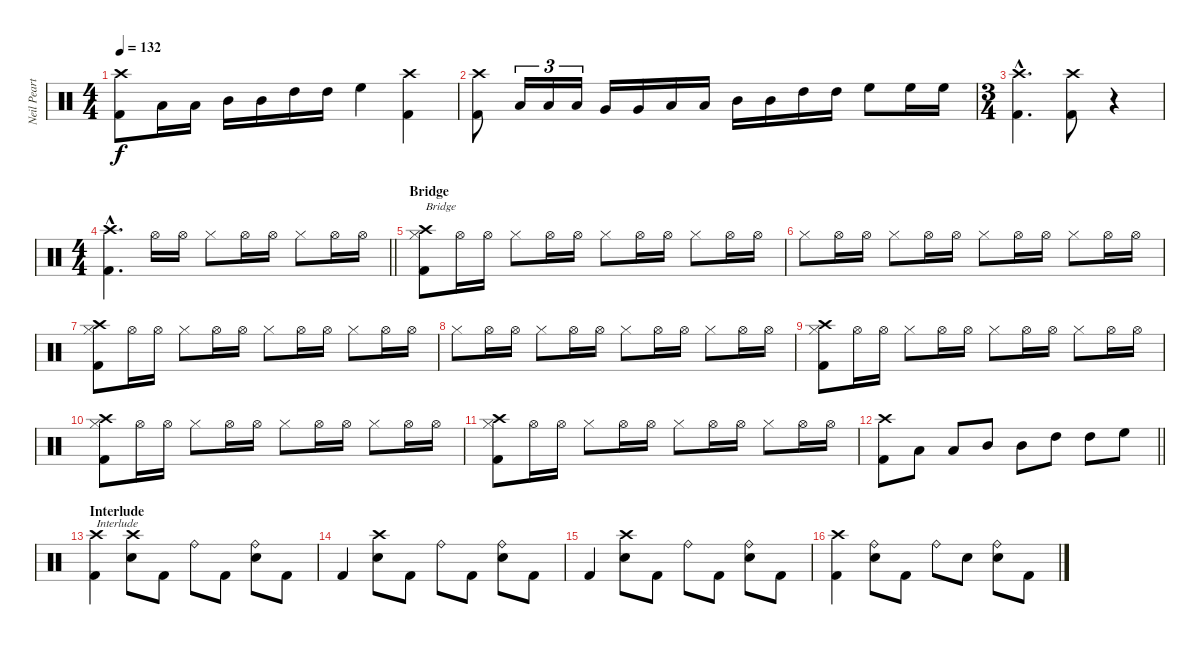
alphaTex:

\track ("Neil Peart" "Neil Peart") {instrument percussion}
\staff {score}
\articulation defaults
\ts (4 4)
\tempo 132
\clef neutral
\ks c
("Crash high (hit)" "Kick (hit) 2").8{dy f} "Low Tom (hit)".16 "Low Tom (hit)".16 "Mid Tom (hit)".16 "Mid Tom (hit)".16 "High Tom (hit)".16 "High Tom (hit)".16 "High Floor Tom (hit)".4 ("Crash high (hit)" "Kick (hit) 2").4 |
("Crash high (hit)" "Kick (hit) 2").8 "Low Floor Tom (hit)".16{tu (3 2)} "Low Floor Tom (hit)".16{tu (3 2)} "Low Floor Tom (hit)".16{tu (3 2)} "Very Low Tom (hit)".16 "Very Low Tom (hit)".16 "Low Tom (hit)".16 "Low Tom (hit)".16 "Mid Tom (hit)".16 "Mid Tom (hit)".16 "High Tom (hit)".16 "High Tom (hit)".16 "High Floor Tom (hit)".8 "High Floor Tom (hit)".16 "High Floor Tom (hit)".16 |
\ts (3 4)
("Crash high (hit)"{hac} "Kick (hit) 2"{hac}).4{d} ("Crash high (hit)" "Kick (hit) 2").8 r.4 |
\ts (4 4)
\barLineRight lightlight
("Crash high (hit)"{hac} "Kick (hit) 2"{hac}).4{d} "Hi-Hat (open)".16 "Hi-Hat (open)".16 "Hi-Hat (closed)".8 "Hi-Hat (open)".16 "Hi-Hat (open)".16 "Hi-Hat (closed)".8 "Hi-Hat (open)".16 "Hi-Hat (open)".16 |
\section ("" "Bridge")
("Crash high (hit)" "Hi-Hat (closed)" "Kick (hit) 2").8{txt "Bridge"} "Hi-Hat (open)".16 "Hi-Hat (open)".16 "Hi-Hat (closed)".8 "Hi-Hat (open)".16 "Hi-Hat (open)".16 "Hi-Hat (closed)".8 "Hi-Hat (open)".16 "Hi-Hat (open)".16 "Hi-Hat (closed)".8 "Hi-Hat (open)".16 "Hi-Hat (open)".16 |
"Hi-Hat (closed)".8 "Hi-Hat (open)".16 "Hi-Hat (open)".16 "Hi-Hat (closed)".8 "Hi-Hat (open)".16 "Hi-Hat (open)".16 "Hi-Hat (closed)".8 "Hi-Hat (open)".16 "Hi-Hat (open)".16 "Hi-Hat (closed)".8 "Hi-Hat (open)".16 "Hi-Hat (open)".16 |
("Crash high (hit)" "Hi-Hat (closed)" "Kick (hit) 2").8 "Hi-Hat (open)".16 "Hi-Hat (open)".16 "Hi-Hat (closed)".8 "Hi-Hat (open)".16 "Hi-Hat (open)".16 "Hi-Hat (closed)".8 "Hi-Hat (open)".16 "Hi-Hat (open)".16 "Hi-Hat (closed)".8 "Hi-Hat (open)".16 "Hi-Hat (open)".16 |
"Hi-Hat (closed)".8 "Hi-Hat (open)".16 "Hi-Hat (open)".16 "Hi-Hat (closed)".8 "Hi-Hat (open)".16 "Hi-Hat (open)".16 "Hi-Hat (closed)".8 "Hi-Hat (open)".16 "Hi-Hat (open)".16 "Hi-Hat (closed)".8 "Hi-Hat (open)".16 "Hi-Hat (open)".16 |
("Crash high (hit)" "Hi-Hat (closed)" "Kick (hit) 2").8 "Hi-Hat (open)".16 "Hi-Hat (open)".16 "Hi-Hat (closed)".8 "Hi-Hat (open)".16 "Hi-Hat (open)".16 "Hi-Hat (closed)".8 "Hi-Hat (open)".16 "Hi-Hat (open)".16 "Hi-Hat (closed)".8 "Hi-Hat (open)".16 "Hi-Hat (open)".16 |
("Crash high (hit)" "Hi-Hat (closed)" "Kick (hit) 2").8 "Hi-Hat (open)".16 "Hi-Hat (open)".16 "Hi-Hat (closed)".8 "Hi-Hat (open)".16 "Hi-Hat (open)".16 "Hi-Hat (closed)".8 "Hi-Hat (open)".16 "Hi-Hat (open)".16 "Hi-Hat (closed)".8 "Hi-Hat (open)".16 "Hi-Hat (open)".16 |
("Crash high (hit)" "Hi-Hat (closed)" "Kick (hit) 2").8 "Hi-Hat (open)".16 "Hi-Hat (open)".16 "Hi-Hat (closed)".8 "Hi-Hat (open)".16 "Hi-Hat (open)".16 "Hi-Hat (closed)".8 "Hi-Hat (open)".16 "Hi-Hat (open)".16 "Hi-Hat (closed)".8 "Hi-Hat (open)".16 "Hi-Hat (open)".16 |
\barLineRight lightlight
("Crash high (hit)" "Kick (hit) 2").8 "Low Tom (hit)".8 "Low Tom (hit)".8 "Mid Tom (hit)".8 "Mid Tom (hit)".8 "High Tom (hit)".8 "High Tom (hit)".8 "High Floor Tom (hit)".8 |
\section ("" "Interlude")
("Crash high (hit)" "Kick (hit) 2").4{txt "Interlude"} ("Crash high (hit)" "Electric Snare (hit)").8 "Kick (hit) 2".8 "Ride (bell)".8 "Kick (hit) 2".8 ("Ride (bell)" "Electric Snare (hit)").8 "Kick (hit) 2".8 |
"Kick (hit) 2".4 ("Crash high (hit)" "Electric Snare (hit)").8 "Kick (hit) 2".8 "Ride (bell)".8 "Kick (hit) 2".8 ("Ride (bell)" "Electric Snare (hit)").8 "Kick (hit) 2".8 |
"Kick (hit) 2".4 ("Crash high (hit)" "Electric Snare (hit)").8 "Kick (hit) 2".8 "Ride (bell)".8 "Kick (hit) 2".8 ("Ride (bell)" "Electric Snare (hit)").8 "Kick (hit) 2".8 |
("Crash high (hit)" "Kick (hit) 2").4 ("Ride (bell)" "Electric Snare (hit)").8 "Kick (hit) 2".8 "Ride (bell)".8 "Electric Snare (hit)".8 ("Ride (bell)" "Electric Snare (hit)").8 "Kick (hit) 2".8
